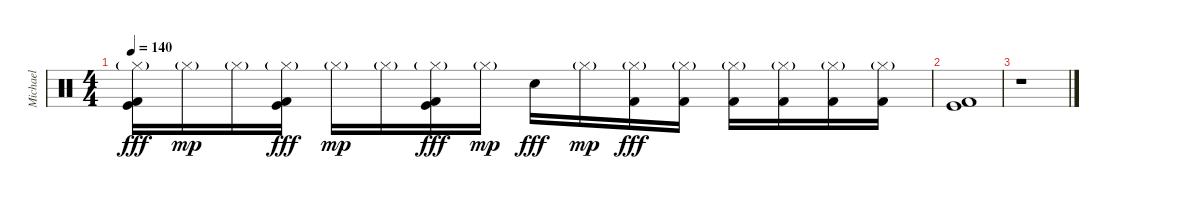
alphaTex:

\track ("Michael" "Michael") {instrument percussion}
\staff {score}
\articulation defaults
\ts (4 4)
\tempo 140
\clef neutral
\ks c
("Hi-Hat (closed)"{g} "Kick (hit)" "Kick (hit) 2").16{dy fff} "Hi-Hat (closed)"{g}.16{dy mp} "Hi-Hat (closed)"{g}.16 ("Hi-Hat (closed)"{g} "Kick (hit)" "Kick (hit) 2").16{dy fff} "Hi-Hat (closed)"{g}.16{dy mp} "Hi-Hat (closed)"{g}.16 ("Hi-Hat (closed)"{g} "Kick (hit)" "Kick (hit) 2").16{dy fff} "Hi-Hat (closed)"{g}.16{dy mp} "Snare (hit) 2".16{dy fff} "Hi-Hat (closed)"{g}.16{dy mp} ("Hi-Hat (closed)"{g} "Kick (hit) 2").16{dy fff} ("Hi-Hat (closed)"{g} "Kick (hit) 2").16 ("Hi-Hat (closed)"{g} "Kick (hit) 2").16 ("Hi-Hat (closed)"{g} "Kick (hit) 2").16 ("Hi-Hat (closed)"{g} "Kick (hit) 2").16 ("Hi-Hat (closed)"{g} "Kick (hit) 2").16 |
("Kick (hit)" "Kick (hit) 2").1 |
r.1
